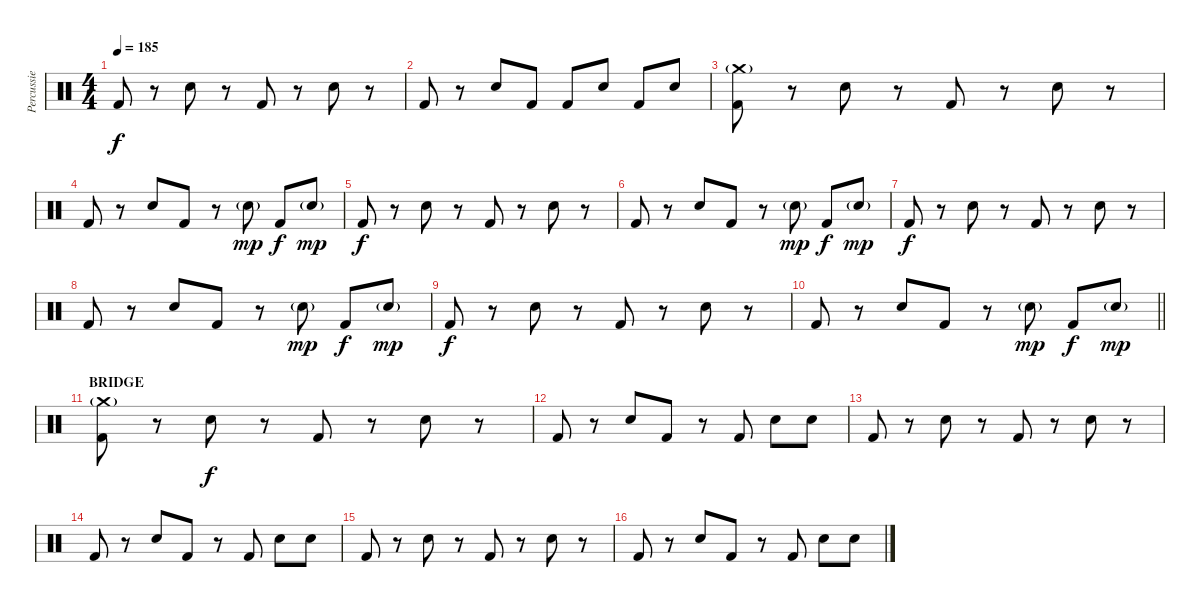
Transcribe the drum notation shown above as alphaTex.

\track ("Percussie" "Percussie") {instrument percussion}
\staff {score}
\articulation defaults
\ts (4 4)
\tempo 185
\clef neutral
\ks c "Kick (hit) 2".8{dy f}
r.8 "Snare (hit) 2".8 r.8 "Kick (hit) 2".8 r.8 "Snare (hit) 2".8 r.8 |
"Kick (hit) 2".8 r.8 "Snare (hit) 2".8 "Kick (hit) 2".8 "Kick (hit) 2".8 "Snare (hit) 2".8 "Kick (hit) 2".8 "Snare (hit) 2".8 |
("Crash medium (hit)"{g} "Kick (hit) 2").8 r.8 "Snare (hit) 2".8 r.8 "Kick (hit) 2".8 r.8 "Snare (hit) 2".8 r.8 |
"Kick (hit) 2".8 r.8 "Snare (hit) 2".8 "Kick (hit) 2".8 r.8 "Snare (hit) 2"{g}.8{dy mp} "Kick (hit) 2".8{dy f} "Snare (hit) 2"{g}.8{dy mp} |
"Kick (hit) 2".8{dy f} r.8 "Snare (hit) 2".8 r.8 "Kick (hit) 2".8 r.8 "Snare (hit) 2".8 r.8 |
"Kick (hit) 2".8 r.8 "Snare (hit) 2".8 "Kick (hit) 2".8 r.8 "Snare (hit) 2"{g}.8{dy mp} "Kick (hit) 2".8{dy f} "Snare (hit) 2"{g}.8{dy mp} |
"Kick (hit) 2".8{dy f} r.8 "Snare (hit) 2".8 r.8 "Kick (hit) 2".8 r.8 "Snare (hit) 2".8 r.8 |
"Kick (hit) 2".8 r.8 "Snare (hit) 2".8 "Kick (hit) 2".8 r.8 "Snare (hit) 2"{g}.8{dy mp} "Kick (hit) 2".8{dy f} "Snare (hit) 2"{g}.8{dy mp} |
"Kick (hit) 2".8{dy f} r.8 "Snare (hit) 2".8 r.8 "Kick (hit) 2".8 r.8 "Snare (hit) 2".8 r.8 |
\barLineRight lightlight "Kick (hit) 2".8
r.8 "Snare (hit) 2".8 "Kick (hit) 2".8 r.8 "Snare (hit) 2"{g}.8{dy mp} "Kick (hit) 2".8{dy f} "Snare (hit) 2"{g}.8{dy mp} |
\section ("" "BRIDGE")
("Crash medium (hit)"{g} "Kick (hit) 2").8 r.8 "Snare (hit) 2".8{dy f} r.8 "Kick (hit) 2".8 r.8 "Snare (hit) 2".8 r.8 |
"Kick (hit) 2".8 r.8 "Snare (hit) 2".8 "Kick (hit) 2".8 r.8 "Kick (hit) 2".8 "Snare (hit) 2".8 "Snare (hit) 2".8 |
"Kick (hit) 2".8 r.8 "Snare (hit) 2".8 r.8 "Kick (hit) 2".8 r.8 "Snare (hit) 2".8 r.8 |
"Kick (hit) 2".8 r.8 "Snare (hit) 2".8 "Kick (hit) 2".8 r.8 "Kick (hit) 2".8 "Snare (hit) 2".8 "Snare (hit) 2".8 |
"Kick (hit) 2".8 r.8 "Snare (hit) 2".8 r.8 "Kick (hit) 2".8 r.8 "Snare (hit) 2".8 r.8 |
"Kick (hit) 2".8 r.8 "Snare (hit) 2".8 "Kick (hit) 2".8 r.8 "Kick (hit) 2".8 "Snare (hit) 2".8 "Snare (hit) 2".8
